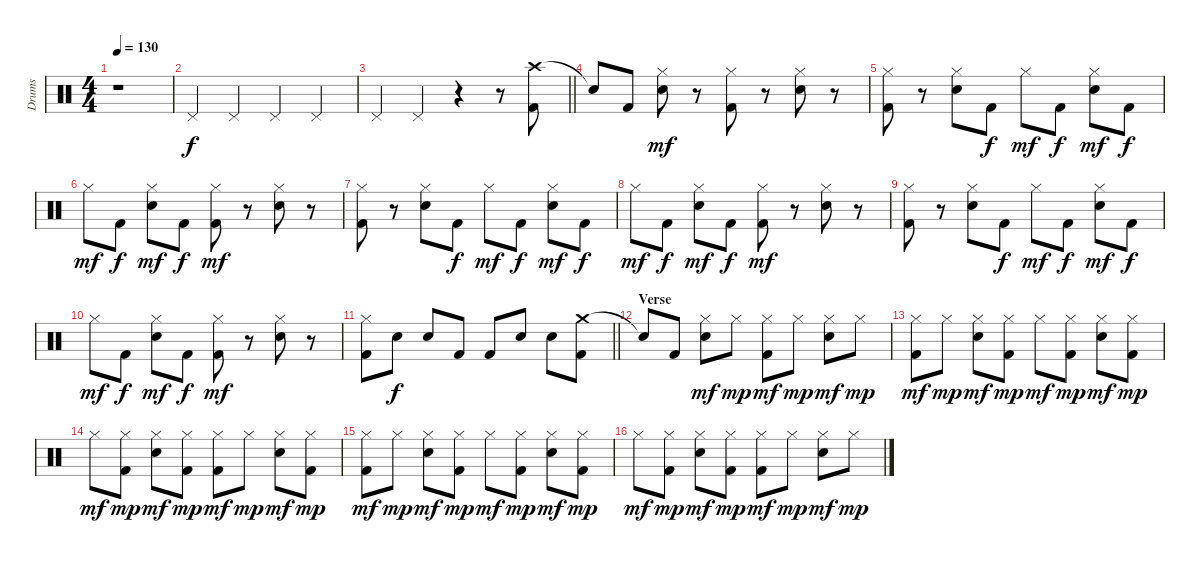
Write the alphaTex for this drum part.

\track ("Drums" "Drums") {instrument percussion}
\staff {score}
\articulation defaults
\ts (4 4)
\tempo 130
\clef neutral
\ks c
r.1{dy f} |
"Pedal Hi-Hat (hit)".4 "Pedal Hi-Hat (hit)".4 "Pedal Hi-Hat (hit)".4 "Pedal Hi-Hat (hit)".4 |
\barLineRight lightlight "Pedal Hi-Hat (hit)".4 "Pedal Hi-Hat (hit)".4
r.4 r.8 ("Crash high (hit)" "Kick (hit) 2").8 |
\section ("" "")
"Snare (hit)"{t}.8 "Kick (hit) 2".8 ("Hi-Hat (closed)" "Electric Snare (hit)").8{dy mf} r.8 ("Hi-Hat (closed)" "Kick (hit) 2").8 r.8 ("Hi-Hat (closed)" "Electric Snare (hit)").8 r.8 |
("Hi-Hat (closed)" "Kick (hit) 2").8 r.8 ("Hi-Hat (closed)" "Electric Snare (hit)").8 "Kick (hit) 2".8{dy f} "Hi-Hat (closed)".8{dy mf} "Kick (hit) 2".8{dy f} ("Hi-Hat (closed)" "Electric Snare (hit)").8{dy mf} "Kick (hit) 2".8{dy f} |
"Hi-Hat (closed)".8{dy mf} "Kick (hit) 2".8{dy f} ("Hi-Hat (closed)" "Electric Snare (hit)").8{dy mf} "Kick (hit) 2".8{dy f} ("Hi-Hat (closed)" "Kick (hit) 2").8{dy mf} r.8 ("Hi-Hat (closed)" "Electric Snare (hit)").8 r.8 |
("Hi-Hat (closed)" "Kick (hit) 2").8 r.8 ("Hi-Hat (closed)" "Electric Snare (hit)").8 "Kick (hit) 2".8{dy f} "Hi-Hat (closed)".8{dy mf} "Kick (hit) 2".8{dy f} ("Hi-Hat (closed)" "Electric Snare (hit)").8{dy mf} "Kick (hit) 2".8{dy f} |
"Hi-Hat (closed)".8{dy mf} "Kick (hit) 2".8{dy f} ("Hi-Hat (closed)" "Electric Snare (hit)").8{dy mf} "Kick (hit) 2".8{dy f} ("Hi-Hat (closed)" "Kick (hit) 2").8{dy mf} r.8 ("Hi-Hat (closed)" "Electric Snare (hit)").8 r.8 |
("Hi-Hat (closed)" "Kick (hit) 2").8 r.8 ("Hi-Hat (closed)" "Electric Snare (hit)").8 "Kick (hit) 2".8{dy f} "Hi-Hat (closed)".8{dy mf} "Kick (hit) 2".8{dy f} ("Hi-Hat (closed)" "Electric Snare (hit)").8{dy mf} "Kick (hit) 2".8{dy f} |
"Hi-Hat (closed)".8{dy mf} "Kick (hit) 2".8{dy f} ("Hi-Hat (closed)" "Electric Snare (hit)").8{dy mf} "Kick (hit) 2".8{dy f} ("Hi-Hat (closed)" "Kick (hit) 2").8{dy mf} r.8 ("Hi-Hat (closed)" "Electric Snare (hit)").8 r.8 |
\barLineRight lightlight
("Hi-Hat (closed)" "Kick (hit) 2").8 "Electric Snare (hit)".8{dy f} "Electric Snare (hit)".8 "Kick (hit) 2".8 "Kick (hit) 2".8 "Electric Snare (hit)".8 "Electric Snare (hit)".8 ("Crash medium (hit)" "Kick (hit) 2").8 |
\section ("" "Verse")
"Snare (hit)"{t}.8 "Kick (hit) 2".8 ("Hi-Hat (closed)" "Electric Snare (hit)").8{dy mf} "Hi-Hat (closed)".8{dy mp} ("Hi-Hat (closed)" "Kick (hit) 2").8{dy mf} "Hi-Hat (closed)".8{dy mp} ("Hi-Hat (closed)" "Electric Snare (hit)").8{dy mf} "Hi-Hat (closed)".8{dy mp} |
("Hi-Hat (closed)" "Kick (hit) 2").8{dy mf} "Hi-Hat (closed)".8{dy mp} ("Hi-Hat (closed)" "Electric Snare (hit)").8{dy mf} ("Hi-Hat (closed)" "Kick (hit) 2").8{dy mp} "Hi-Hat (closed)".8{dy mf} ("Hi-Hat (closed)" "Kick (hit) 2").8{dy mp} ("Hi-Hat (closed)" "Electric Snare (hit)").8{dy mf} ("Hi-Hat (closed)" "Kick (hit) 2").8{dy mp} |
"Hi-Hat (closed)".8{dy mf} ("Hi-Hat (closed)" "Kick (hit) 2").8{dy mp} ("Hi-Hat (closed)" "Electric Snare (hit)").8{dy mf} ("Hi-Hat (closed)" "Kick (hit) 2").8{dy mp} ("Hi-Hat (closed)" "Kick (hit) 2").8{dy mf} "Hi-Hat (closed)".8{dy mp} ("Hi-Hat (closed)" "Electric Snare (hit)").8{dy mf} ("Hi-Hat (closed)" "Kick (hit) 2").8{dy mp} |
("Hi-Hat (closed)" "Kick (hit) 2").8{dy mf} "Hi-Hat (closed)".8{dy mp} ("Hi-Hat (closed)" "Electric Snare (hit)").8{dy mf} ("Hi-Hat (closed)" "Kick (hit) 2").8{dy mp} "Hi-Hat (closed)".8{dy mf} ("Hi-Hat (closed)" "Kick (hit) 2").8{dy mp} ("Hi-Hat (closed)" "Electric Snare (hit)").8{dy mf} ("Hi-Hat (closed)" "Kick (hit) 2").8{dy mp} |
"Hi-Hat (closed)".8{dy mf} ("Hi-Hat (closed)" "Kick (hit) 2").8{dy mp} ("Hi-Hat (closed)" "Electric Snare (hit)").8{dy mf} ("Hi-Hat (closed)" "Kick (hit) 2").8{dy mp} ("Hi-Hat (closed)" "Kick (hit) 2").8{dy mf} "Hi-Hat (closed)".8{dy mp} ("Hi-Hat (closed)" "Electric Snare (hit)").8{dy mf} "Hi-Hat (closed)".8{dy mp}
